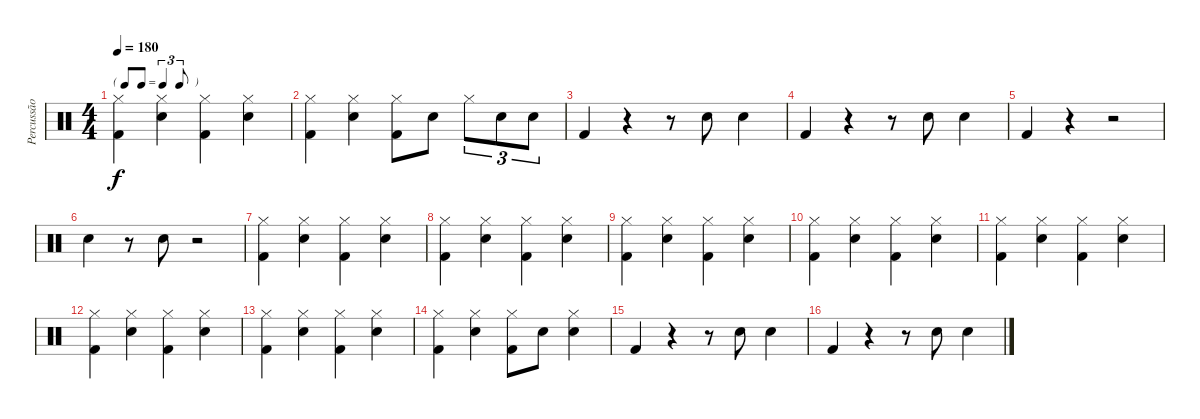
\track ("Percussão" "Percussão") {instrument percussion}
\staff {score}
\articulation defaults
\ts (4 4)
\tf triplet8th
\tempo 180
\clef neutral
\ks c
("Hi-Hat (closed)" "Kick (hit) 2").4{dy f} ("Hi-Hat (closed)" "Snare (hit) 2").4 ("Hi-Hat (closed)" "Kick (hit) 2").4 ("Hi-Hat (closed)" "Snare (hit) 2").4 |
("Hi-Hat (closed)" "Kick (hit) 2").4 ("Hi-Hat (closed)" "Snare (hit) 2").4 ("Hi-Hat (closed)" "Kick (hit) 2").8 "Snare (hit) 2".8 "Hi-Hat (closed)".8{tu (3 2)} "Snare (hit) 2".8{tu (3 2)} "Snare (hit) 2".8{tu (3 2)} |
"Kick (hit) 2".4 r.4 r.8 "Snare (hit) 2".8 "Snare (hit) 2".4 |
"Kick (hit) 2".4 r.4 r.8 "Snare (hit) 2".8 "Snare (hit) 2".4 |
"Kick (hit) 2".4 r.4 r.2 |
"Snare (hit) 2".4 r.8 "Snare (hit) 2".8 r.2 |
("Hi-Hat (closed)" "Kick (hit) 2").4 ("Hi-Hat (closed)" "Snare (hit) 2").4 ("Hi-Hat (closed)" "Kick (hit) 2").4 ("Hi-Hat (closed)" "Snare (hit) 2").4 |
("Hi-Hat (closed)" "Kick (hit) 2").4 ("Hi-Hat (closed)" "Snare (hit) 2").4 ("Hi-Hat (closed)" "Kick (hit) 2").4 ("Hi-Hat (closed)" "Snare (hit) 2").4 |
("Hi-Hat (closed)" "Kick (hit) 2").4 ("Hi-Hat (closed)" "Snare (hit) 2").4 ("Hi-Hat (closed)" "Kick (hit) 2").4 ("Hi-Hat (closed)" "Snare (hit) 2").4 |
("Hi-Hat (closed)" "Kick (hit) 2").4 ("Hi-Hat (closed)" "Snare (hit) 2").4 ("Hi-Hat (closed)" "Kick (hit) 2").4 ("Hi-Hat (closed)" "Snare (hit) 2").4 |
("Hi-Hat (closed)" "Kick (hit) 2").4 ("Hi-Hat (closed)" "Snare (hit) 2").4 ("Hi-Hat (closed)" "Kick (hit) 2").4 ("Hi-Hat (closed)" "Snare (hit) 2").4 |
("Hi-Hat (closed)" "Kick (hit) 2").4 ("Hi-Hat (closed)" "Snare (hit) 2").4 ("Hi-Hat (closed)" "Kick (hit) 2").4 ("Hi-Hat (closed)" "Snare (hit) 2").4 |
("Hi-Hat (closed)" "Kick (hit) 2").4 ("Hi-Hat (closed)" "Snare (hit) 2").4 ("Hi-Hat (closed)" "Kick (hit) 2").4 ("Hi-Hat (closed)" "Snare (hit) 2").4 |
("Hi-Hat (closed)" "Kick (hit) 2").4 ("Hi-Hat (closed)" "Snare (hit) 2").4 ("Hi-Hat (closed)" "Kick (hit) 2").8 "Snare (hit) 2".8 ("Hi-Hat (closed)" "Snare (hit) 2").4 |
"Kick (hit) 2".4 r.4 r.8 "Snare (hit) 2".8 "Snare (hit) 2".4 |
"Kick (hit) 2".4 r.4 r.8 "Snare (hit) 2".8 "Snare (hit) 2".4
